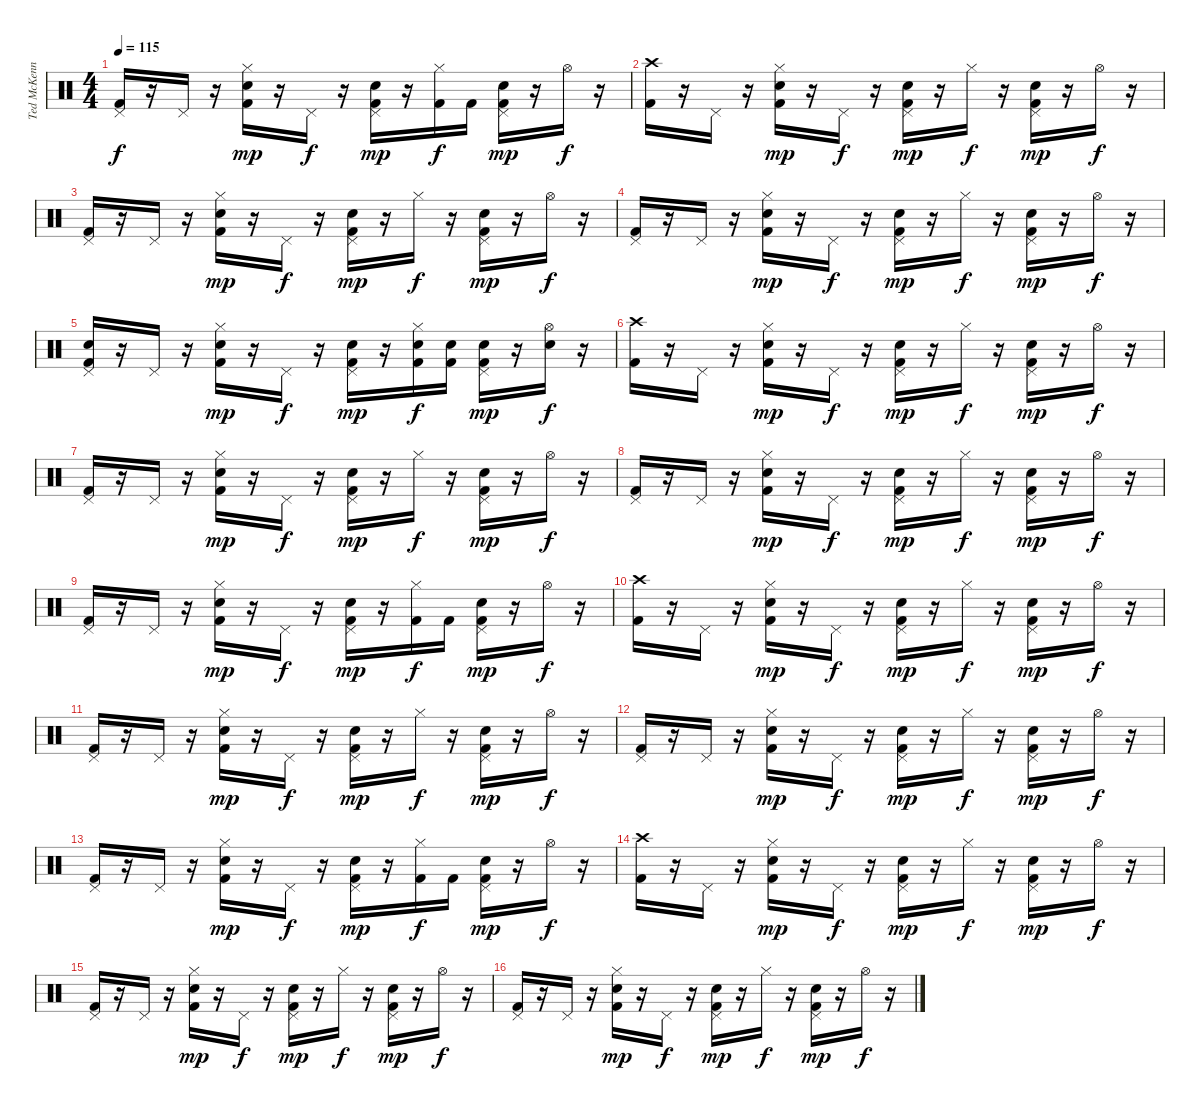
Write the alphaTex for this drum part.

\track ("Ted McKenna" "Ted McKenn") {instrument percussion}
\staff {score}
\articulation defaults
\ts (4 4)
\tempo 115
\clef neutral
\ks c
("Pedal Hi-Hat (hit)" "Kick (hit) 2").16{dy f} r.16 "Pedal Hi-Hat (hit)".16 r.16 ("Electric Snare (hit)" "Hi-Hat (closed)" "Kick (hit) 2").16{dy mp} r.16 "Pedal Hi-Hat (hit)".16{dy f} r.16 ("Electric Snare (hit)" "Pedal Hi-Hat (hit)" "Kick (hit) 2").16{dy mp} r.16 ("Hi-Hat (closed)" "Kick (hit) 2").16{dy f} "Kick (hit) 2".16 ("Electric Snare (hit)" "Pedal Hi-Hat (hit)" "Kick (hit) 2").16{dy mp} r.16 "Hi-Hat (open)".16{dy f} r.16 |
("Crash high (hit)" "Kick (hit) 2").16 r.16 "Pedal Hi-Hat (hit)".16 r.16 ("Electric Snare (hit)" "Hi-Hat (closed)" "Kick (hit) 2").16{dy mp} r.16 "Pedal Hi-Hat (hit)".16{dy f} r.16 ("Electric Snare (hit)" "Pedal Hi-Hat (hit)" "Kick (hit) 2").16{dy mp} r.16 "Hi-Hat (closed)".16{dy f} r.16 ("Electric Snare (hit)" "Pedal Hi-Hat (hit)" "Kick (hit) 2").16{dy mp} r.16 "Hi-Hat (open)".16{dy f} r.16 |
("Pedal Hi-Hat (hit)" "Kick (hit) 2").16 r.16 "Pedal Hi-Hat (hit)".16 r.16 ("Electric Snare (hit)" "Hi-Hat (closed)" "Kick (hit) 2").16{dy mp} r.16 "Pedal Hi-Hat (hit)".16{dy f} r.16 ("Electric Snare (hit)" "Pedal Hi-Hat (hit)" "Kick (hit) 2").16{dy mp} r.16 "Hi-Hat (closed)".16{dy f} r.16 ("Electric Snare (hit)" "Pedal Hi-Hat (hit)" "Kick (hit) 2").16{dy mp} r.16 "Hi-Hat (open)".16{dy f} r.16 |
("Pedal Hi-Hat (hit)" "Kick (hit) 2").16 r.16 "Pedal Hi-Hat (hit)".16 r.16 ("Electric Snare (hit)" "Hi-Hat (closed)" "Kick (hit) 2").16{dy mp} r.16 "Pedal Hi-Hat (hit)".16{dy f} r.16 ("Electric Snare (hit)" "Pedal Hi-Hat (hit)" "Kick (hit) 2").16{dy mp} r.16 "Hi-Hat (closed)".16{dy f} r.16 ("Electric Snare (hit)" "Pedal Hi-Hat (hit)" "Kick (hit) 2").16{dy mp} r.16 "Hi-Hat (open)".16{dy f} r.16 |
("Electric Snare (hit)" "Pedal Hi-Hat (hit)" "Kick (hit) 2").16 r.16 "Pedal Hi-Hat (hit)".16 r.16 ("Electric Snare (hit)" "Hi-Hat (closed)" "Kick (hit) 2").16{dy mp} r.16 "Pedal Hi-Hat (hit)".16{dy f} r.16 ("Electric Snare (hit)" "Pedal Hi-Hat (hit)" "Kick (hit) 2").16{dy mp} r.16 ("Electric Snare (hit)" "Hi-Hat (closed)" "Kick (hit) 2").16{dy f} ("Electric Snare (hit)" "Kick (hit) 2").16 ("Electric Snare (hit)" "Pedal Hi-Hat (hit)" "Kick (hit) 2").16{dy mp} r.16 ("Electric Snare (hit)" "Hi-Hat (open)").16{dy f} r.16 |
("Crash high (hit)" "Kick (hit) 2").16 r.16 "Pedal Hi-Hat (hit)".16 r.16 ("Electric Snare (hit)" "Hi-Hat (closed)" "Kick (hit) 2").16{dy mp} r.16 "Pedal Hi-Hat (hit)".16{dy f} r.16 ("Electric Snare (hit)" "Pedal Hi-Hat (hit)" "Kick (hit) 2").16{dy mp} r.16 "Hi-Hat (closed)".16{dy f} r.16 ("Electric Snare (hit)" "Pedal Hi-Hat (hit)" "Kick (hit) 2").16{dy mp} r.16 "Hi-Hat (open)".16{dy f} r.16 |
("Pedal Hi-Hat (hit)" "Kick (hit) 2").16 r.16 "Pedal Hi-Hat (hit)".16 r.16 ("Electric Snare (hit)" "Hi-Hat (closed)" "Kick (hit) 2").16{dy mp} r.16 "Pedal Hi-Hat (hit)".16{dy f} r.16 ("Electric Snare (hit)" "Pedal Hi-Hat (hit)" "Kick (hit) 2").16{dy mp} r.16 "Hi-Hat (closed)".16{dy f} r.16 ("Electric Snare (hit)" "Pedal Hi-Hat (hit)" "Kick (hit) 2").16{dy mp} r.16 "Hi-Hat (open)".16{dy f} r.16 |
("Pedal Hi-Hat (hit)" "Kick (hit) 2").16 r.16 "Pedal Hi-Hat (hit)".16 r.16 ("Electric Snare (hit)" "Hi-Hat (closed)" "Kick (hit) 2").16{dy mp} r.16 "Pedal Hi-Hat (hit)".16{dy f} r.16 ("Electric Snare (hit)" "Pedal Hi-Hat (hit)" "Kick (hit) 2").16{dy mp} r.16 "Hi-Hat (closed)".16{dy f} r.16 ("Electric Snare (hit)" "Pedal Hi-Hat (hit)" "Kick (hit) 2").16{dy mp} r.16 "Hi-Hat (open)".16{dy f} r.16 |
("Pedal Hi-Hat (hit)" "Kick (hit) 2").16 r.16 "Pedal Hi-Hat (hit)".16 r.16 ("Electric Snare (hit)" "Hi-Hat (closed)" "Kick (hit) 2").16{dy mp} r.16 "Pedal Hi-Hat (hit)".16{dy f} r.16 ("Electric Snare (hit)" "Pedal Hi-Hat (hit)" "Kick (hit) 2").16{dy mp} r.16 ("Hi-Hat (closed)" "Kick (hit) 2").16{dy f} "Kick (hit) 2".16 ("Electric Snare (hit)" "Pedal Hi-Hat (hit)" "Kick (hit) 2").16{dy mp} r.16 "Hi-Hat (open)".16{dy f} r.16 |
("Crash high (hit)" "Kick (hit) 2").16 r.16 "Pedal Hi-Hat (hit)".16 r.16 ("Electric Snare (hit)" "Hi-Hat (closed)" "Kick (hit) 2").16{dy mp} r.16 "Pedal Hi-Hat (hit)".16{dy f} r.16 ("Electric Snare (hit)" "Pedal Hi-Hat (hit)" "Kick (hit) 2").16{dy mp} r.16 "Hi-Hat (closed)".16{dy f} r.16 ("Electric Snare (hit)" "Pedal Hi-Hat (hit)" "Kick (hit) 2").16{dy mp} r.16 "Hi-Hat (open)".16{dy f} r.16 |
("Pedal Hi-Hat (hit)" "Kick (hit) 2").16 r.16 "Pedal Hi-Hat (hit)".16 r.16 ("Electric Snare (hit)" "Hi-Hat (closed)" "Kick (hit) 2").16{dy mp} r.16 "Pedal Hi-Hat (hit)".16{dy f} r.16 ("Electric Snare (hit)" "Pedal Hi-Hat (hit)" "Kick (hit) 2").16{dy mp} r.16 "Hi-Hat (closed)".16{dy f} r.16 ("Electric Snare (hit)" "Pedal Hi-Hat (hit)" "Kick (hit) 2").16{dy mp} r.16 "Hi-Hat (open)".16{dy f} r.16 |
("Pedal Hi-Hat (hit)" "Kick (hit) 2").16 r.16 "Pedal Hi-Hat (hit)".16 r.16 ("Electric Snare (hit)" "Hi-Hat (closed)" "Kick (hit) 2").16{dy mp} r.16 "Pedal Hi-Hat (hit)".16{dy f} r.16 ("Electric Snare (hit)" "Pedal Hi-Hat (hit)" "Kick (hit) 2").16{dy mp} r.16 "Hi-Hat (closed)".16{dy f} r.16 ("Electric Snare (hit)" "Pedal Hi-Hat (hit)" "Kick (hit) 2").16{dy mp} r.16 "Hi-Hat (open)".16{dy f} r.16 |
("Pedal Hi-Hat (hit)" "Kick (hit) 2").16 r.16 "Pedal Hi-Hat (hit)".16 r.16 ("Electric Snare (hit)" "Hi-Hat (closed)" "Kick (hit) 2").16{dy mp} r.16 "Pedal Hi-Hat (hit)".16{dy f} r.16 ("Electric Snare (hit)" "Pedal Hi-Hat (hit)" "Kick (hit) 2").16{dy mp} r.16 ("Hi-Hat (closed)" "Kick (hit) 2").16{dy f} "Kick (hit) 2".16 ("Electric Snare (hit)" "Pedal Hi-Hat (hit)" "Kick (hit) 2").16{dy mp} r.16 "Hi-Hat (open)".16{dy f} r.16 |
("Crash high (hit)" "Kick (hit) 2").16 r.16 "Pedal Hi-Hat (hit)".16 r.16 ("Electric Snare (hit)" "Hi-Hat (closed)" "Kick (hit) 2").16{dy mp} r.16 "Pedal Hi-Hat (hit)".16{dy f} r.16 ("Electric Snare (hit)" "Pedal Hi-Hat (hit)" "Kick (hit) 2").16{dy mp} r.16 "Hi-Hat (closed)".16{dy f} r.16 ("Electric Snare (hit)" "Pedal Hi-Hat (hit)" "Kick (hit) 2").16{dy mp} r.16 "Hi-Hat (open)".16{dy f} r.16 |
("Pedal Hi-Hat (hit)" "Kick (hit) 2").16 r.16 "Pedal Hi-Hat (hit)".16 r.16 ("Electric Snare (hit)" "Hi-Hat (closed)" "Kick (hit) 2").16{dy mp} r.16 "Pedal Hi-Hat (hit)".16{dy f} r.16 ("Electric Snare (hit)" "Pedal Hi-Hat (hit)" "Kick (hit) 2").16{dy mp} r.16 "Hi-Hat (closed)".16{dy f} r.16 ("Electric Snare (hit)" "Pedal Hi-Hat (hit)" "Kick (hit) 2").16{dy mp} r.16 "Hi-Hat (open)".16{dy f} r.16 |
("Pedal Hi-Hat (hit)" "Kick (hit) 2").16 r.16 "Pedal Hi-Hat (hit)".16 r.16 ("Electric Snare (hit)" "Hi-Hat (closed)" "Kick (hit) 2").16{dy mp} r.16 "Pedal Hi-Hat (hit)".16{dy f} r.16 ("Electric Snare (hit)" "Pedal Hi-Hat (hit)" "Kick (hit) 2").16{dy mp} r.16 "Hi-Hat (closed)".16{dy f} r.16 ("Electric Snare (hit)" "Pedal Hi-Hat (hit)" "Kick (hit) 2").16{dy mp} r.16 "Hi-Hat (open)".16{dy f} r.16
